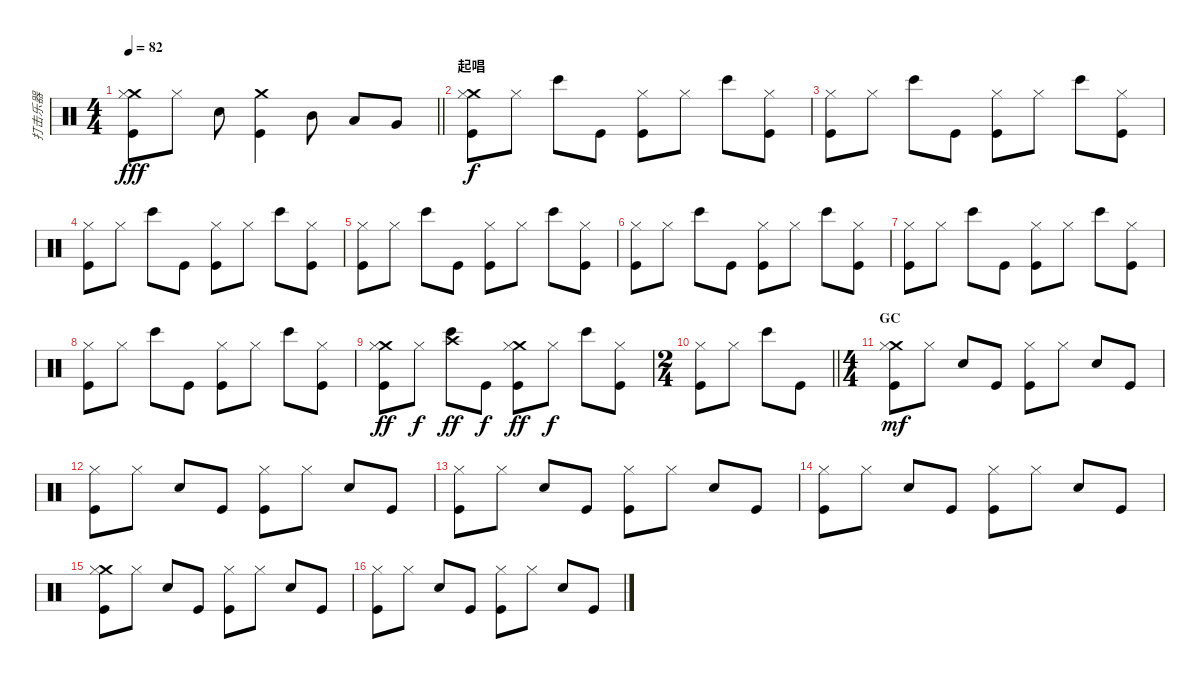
\track ("打击乐器" "打击乐器") {instrument percussion}
\staff {score}
\articulation defaults
\ts (4 4)
\tempo 82
\clef neutral
\barLineRight lightlight
\ks c
("Crash medium (hit)" "Hi-Hat (closed)" "Kick (hit)").8{dy fff} "Hi-Hat (closed)".8 "Electric Snare (hit)".8 ("Crash medium (hit)" "Kick (hit)").4 "Mid Tom (hit)".8 "Low Tom (hit)".8 "Very Low Tom (hit)".8 |
\section ("" "起唱")
("Crash medium (hit)" "Hi-Hat (closed)" "Kick (hit)").8{dy f} "Hi-Hat (closed)".8 "Bongo High (hit)".8 "Kick (hit)".8 ("Hi-Hat (closed)" "Kick (hit)").8 "Hi-Hat (closed)".8 "Bongo High (hit)".8 ("Hi-Hat (closed)" "Kick (hit)").8 |
("Hi-Hat (closed)" "Kick (hit)").8 "Hi-Hat (closed)".8 "Bongo High (hit)".8 "Kick (hit)".8 ("Hi-Hat (closed)" "Kick (hit)").8 "Hi-Hat (closed)".8 "Bongo High (hit)".8 ("Hi-Hat (closed)" "Kick (hit)").8 |
("Hi-Hat (closed)" "Kick (hit)").8 "Hi-Hat (closed)".8 "Bongo High (hit)".8 "Kick (hit)".8 ("Hi-Hat (closed)" "Kick (hit)").8 "Hi-Hat (closed)".8 "Bongo High (hit)".8 ("Hi-Hat (closed)" "Kick (hit)").8 |
("Hi-Hat (closed)" "Kick (hit)").8 "Hi-Hat (closed)".8 "Bongo High (hit)".8 "Kick (hit)".8 ("Hi-Hat (closed)" "Kick (hit)").8 "Hi-Hat (closed)".8 "Bongo High (hit)".8 ("Hi-Hat (closed)" "Kick (hit)").8 |
("Hi-Hat (closed)" "Kick (hit)").8 "Hi-Hat (closed)".8 "Bongo High (hit)".8 "Kick (hit)".8 ("Hi-Hat (closed)" "Kick (hit)").8 "Hi-Hat (closed)".8 "Bongo High (hit)".8 ("Hi-Hat (closed)" "Kick (hit)").8 |
("Hi-Hat (closed)" "Kick (hit)").8 "Hi-Hat (closed)".8 "Bongo High (hit)".8 "Kick (hit)".8 ("Hi-Hat (closed)" "Kick (hit)").8 "Hi-Hat (closed)".8 "Bongo High (hit)".8 ("Hi-Hat (closed)" "Kick (hit)").8 |
("Hi-Hat (closed)" "Kick (hit)").8 "Hi-Hat (closed)".8 "Bongo High (hit)".8 "Kick (hit)".8 ("Hi-Hat (closed)" "Kick (hit)").8 "Hi-Hat (closed)".8 "Bongo High (hit)".8 ("Hi-Hat (closed)" "Kick (hit)").8 |
("Crash medium (hit)" "Hi-Hat (closed)" "Kick (hit)").8{dy ff} "Hi-Hat (closed)".8{dy f} ("Crash high (hit)" "Bongo High (hit)").8{dy ff} "Kick (hit)".8{dy f} ("Crash medium (hit)" "Hi-Hat (closed)" "Kick (hit)").8{dy ff} "Hi-Hat (closed)".8{dy f} "Bongo High (hit)".8 ("Hi-Hat (closed)" "Kick (hit)").8 |
\ts (2 4)
\barLineRight lightlight
("Hi-Hat (closed)" "Kick (hit)").8 "Hi-Hat (closed)".8 "Bongo High (hit)".8 "Kick (hit)".8 |
\ts (4 4)
\section ("" "GC")
("Crash medium (hit)" "Hi-Hat (closed)" "Kick (hit)").8{dy mf} "Hi-Hat (closed)".8 "Electric Snare (hit)".8 "Kick (hit)".8 ("Hi-Hat (closed)" "Kick (hit)").8 "Hi-Hat (closed)".8 "Electric Snare (hit)".8 "Kick (hit)".8 |
("Hi-Hat (closed)" "Kick (hit)").8 "Hi-Hat (closed)".8 "Electric Snare (hit)".8 "Kick (hit)".8 ("Hi-Hat (closed)" "Kick (hit)").8 "Hi-Hat (closed)".8 "Electric Snare (hit)".8 "Kick (hit)".8 |
("Hi-Hat (closed)" "Kick (hit)").8 "Hi-Hat (closed)".8 "Electric Snare (hit)".8 "Kick (hit)".8 ("Hi-Hat (closed)" "Kick (hit)").8 "Hi-Hat (closed)".8 "Electric Snare (hit)".8 "Kick (hit)".8 |
("Hi-Hat (closed)" "Kick (hit)").8 "Hi-Hat (closed)".8 "Electric Snare (hit)".8 "Kick (hit)".8 ("Hi-Hat (closed)" "Kick (hit)").8 "Hi-Hat (closed)".8 "Electric Snare (hit)".8 "Kick (hit)".8 |
("Crash medium (hit)" "Hi-Hat (closed)" "Kick (hit)").8 "Hi-Hat (closed)".8 "Electric Snare (hit)".8 "Kick (hit)".8 ("Hi-Hat (closed)" "Kick (hit)").8 "Hi-Hat (closed)".8 "Electric Snare (hit)".8 "Kick (hit)".8 |
("Hi-Hat (closed)" "Kick (hit)").8 "Hi-Hat (closed)".8 "Electric Snare (hit)".8 "Kick (hit)".8 ("Hi-Hat (closed)" "Kick (hit)").8 "Hi-Hat (closed)".8 "Electric Snare (hit)".8 "Kick (hit)".8
